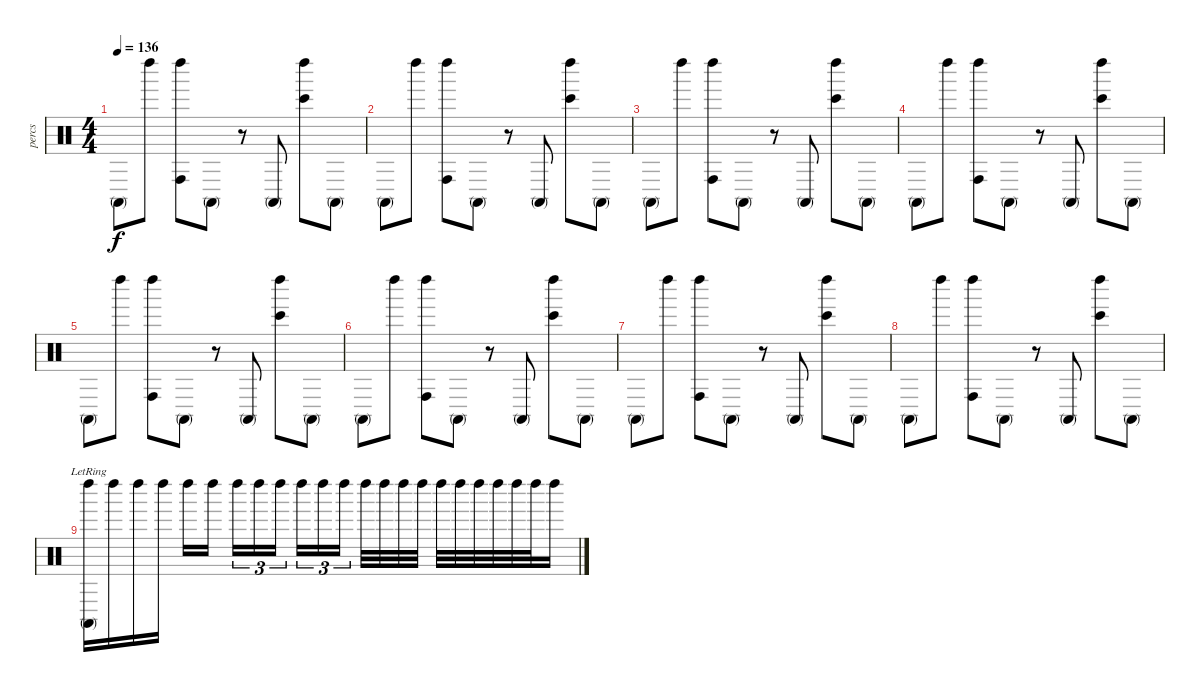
\track ("percs" "percs") {instrument percussion}
\staff {score}
\articulation defaults
\ts (4 4)
\tempo 136
\clef neutral
\ks c "Conga high (mute)".8{dy f} "Left Maraca (hit)".8
("Left Maraca (hit)" "Conga high (hit)").8 "Conga high (mute)".8 r.8 "Conga high (mute)".8 ("Left Maraca (hit)" "Bongo High (hit)").8 "Conga high (mute)".8 |
"Conga high (mute)".8 "Left Maraca (hit)".8 ("Left Maraca (hit)" "Conga high (hit)").8 "Conga high (mute)".8 r.8 "Conga high (mute)".8 ("Left Maraca (hit)" "Bongo High (hit)").8 "Conga high (mute)".8 |
"Conga high (mute)".8 "Left Maraca (hit)".8 ("Left Maraca (hit)" "Conga high (hit)").8 "Conga high (mute)".8 r.8 "Conga high (mute)".8 ("Left Maraca (hit)" "Bongo High (hit)").8 "Conga high (mute)".8 |
"Conga high (mute)".8 "Left Maraca (hit)".8 ("Left Maraca (hit)" "Conga high (hit)").8 "Conga high (mute)".8 r.8 "Conga high (mute)".8 ("Left Maraca (hit)" "Bongo High (hit)").8 "Conga high (mute)".8 |
"Conga high (mute)".8 "Left Maraca (hit)".8 ("Left Maraca (hit)" "Conga high (hit)").8 "Conga high (mute)".8 r.8 "Conga high (mute)".8 ("Left Maraca (hit)" "Bongo High (hit)").8 "Conga high (mute)".8 |
"Conga high (mute)".8 "Left Maraca (hit)".8 ("Left Maraca (hit)" "Conga high (hit)").8 "Conga high (mute)".8 r.8 "Conga high (mute)".8 ("Left Maraca (hit)" "Bongo High (hit)").8 "Conga high (mute)".8 |
"Conga high (mute)".8 "Left Maraca (hit)".8 ("Left Maraca (hit)" "Conga high (hit)").8 "Conga high (mute)".8 r.8 "Conga high (mute)".8 ("Left Maraca (hit)" "Bongo High (hit)").8 "Conga high (mute)".8 |
"Conga high (mute)".8 "Left Maraca (hit)".8 ("Left Maraca (hit)" "Conga high (hit)").8 "Conga high (mute)".8 r.8 "Conga high (mute)".8 ("Left Maraca (hit)" "Bongo High (hit)").8 "Conga high (mute)".8 |
("Left Maraca (hit)" "Conga high (mute)"{lr}).16{volume 6} "Left Maraca (hit)".16 "Left Maraca (hit)".16 "Left Maraca (hit)".16 "Left Maraca (hit)".16 "Left Maraca (hit)".16 "Left Maraca (hit)".16{tu (3 2)} "Left Maraca (hit)".16{tu (3 2)} "Left Maraca (hit)".16{tu (3 2)} "Left Maraca (hit)".16{tu (3 2)} "Left Maraca (hit)".16{tu (3 2)} "Left Maraca (hit)".16{tu (3 2)} "Left Maraca (hit)".32 "Left Maraca (hit)".32 "Left Maraca (hit)".32 "Left Maraca (hit)".32 "Left Maraca (hit)".32 "Left Maraca (hit)".32 "Left Maraca (hit)".32 "Left Maraca (hit)".32 "Left Maraca (hit)".32 "Left Maraca (hit)".32 "Left Maraca (hit)".16
